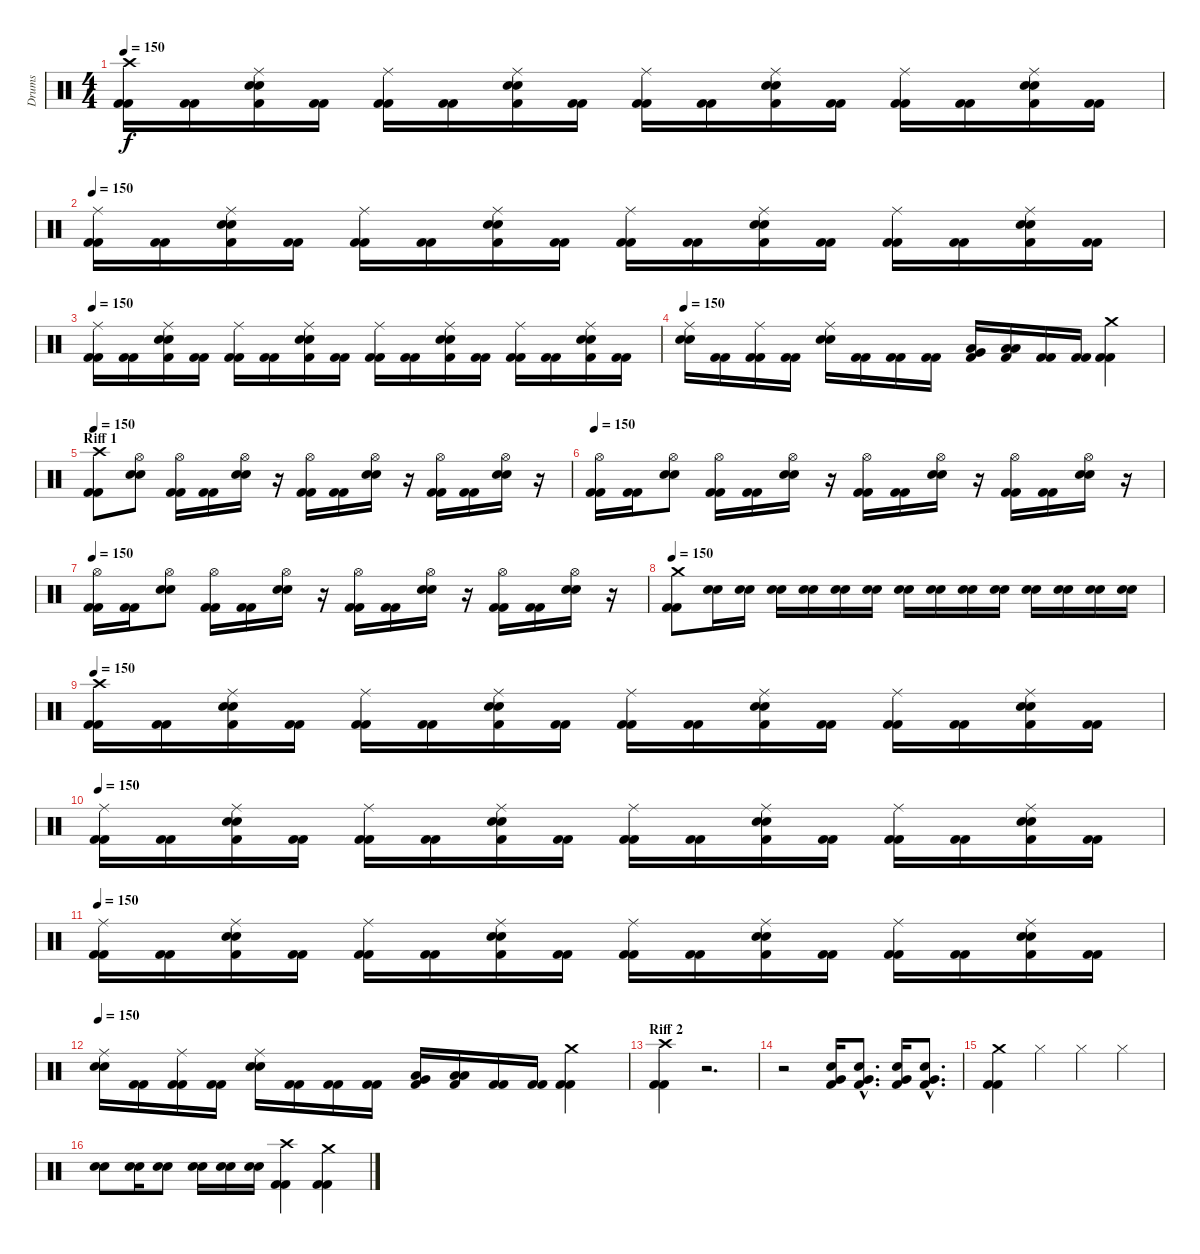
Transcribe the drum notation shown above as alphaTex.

\track ("Drums" "Drums") {instrument percussion}
\staff {score}
\articulation defaults
\ts (4 4)
\tempo 150
\clef neutral
\ks c
("Crash high (hit)" "Kick (hit) 2" "Kick (hit) 2").16{dy f} ("Kick (hit) 2" "Kick (hit) 2").16 ("Ride (middle)" "Snare (hit) 2" "Snare (hit) 2" "Kick (hit) 2").16 ("Kick (hit) 2" "Kick (hit) 2").16 ("Ride (middle)" "Kick (hit) 2" "Kick (hit) 2").16 ("Kick (hit) 2" "Kick (hit) 2").16 ("Ride (middle)" "Snare (hit) 2" "Snare (hit) 2" "Kick (hit) 2").16 ("Kick (hit) 2" "Kick (hit) 2").16 ("Ride (middle)" "Kick (hit) 2" "Kick (hit) 2").16 ("Kick (hit) 2" "Kick (hit) 2").16 ("Ride (middle)" "Snare (hit) 2" "Snare (hit) 2" "Kick (hit) 2").16 ("Kick (hit) 2" "Kick (hit) 2").16 ("Ride (middle)" "Kick (hit) 2" "Kick (hit) 2").16 ("Kick (hit) 2" "Kick (hit) 2").16 ("Ride (middle)" "Snare (hit) 2" "Snare (hit) 2" "Kick (hit) 2").16 ("Kick (hit) 2" "Kick (hit) 2").16 |
\tempo 150
("Ride (middle)" "Kick (hit) 2" "Kick (hit) 2").16 ("Kick (hit) 2" "Kick (hit) 2").16 ("Ride (middle)" "Snare (hit) 2" "Snare (hit) 2" "Kick (hit) 2").16 ("Kick (hit) 2" "Kick (hit) 2").16 ("Ride (middle)" "Kick (hit) 2" "Kick (hit) 2").16 ("Kick (hit) 2" "Kick (hit) 2").16 ("Ride (middle)" "Snare (hit) 2" "Snare (hit) 2" "Kick (hit) 2").16 ("Kick (hit) 2" "Kick (hit) 2").16 ("Ride (middle)" "Kick (hit) 2" "Kick (hit) 2").16 ("Kick (hit) 2" "Kick (hit) 2").16 ("Ride (middle)" "Snare (hit) 2" "Snare (hit) 2" "Kick (hit) 2").16 ("Kick (hit) 2" "Kick (hit) 2").16 ("Ride (middle)" "Kick (hit) 2" "Kick (hit) 2").16 ("Kick (hit) 2" "Kick (hit) 2").16 ("Ride (middle)" "Snare (hit) 2" "Snare (hit) 2" "Kick (hit) 2").16 ("Kick (hit) 2" "Kick (hit) 2").16 |
\tempo 150
("Ride (middle)" "Kick (hit) 2" "Kick (hit) 2").16 ("Kick (hit) 2" "Kick (hit) 2").16 ("Ride (middle)" "Snare (hit) 2" "Snare (hit) 2" "Kick (hit) 2").16 ("Kick (hit) 2" "Kick (hit) 2").16 ("Ride (middle)" "Kick (hit) 2" "Kick (hit) 2").16 ("Kick (hit) 2" "Kick (hit) 2").16 ("Ride (middle)" "Snare (hit) 2" "Snare (hit) 2" "Kick (hit) 2").16 ("Kick (hit) 2" "Kick (hit) 2").16 ("Ride (middle)" "Kick (hit) 2" "Kick (hit) 2").16 ("Kick (hit) 2" "Kick (hit) 2").16 ("Ride (middle)" "Snare (hit) 2" "Snare (hit) 2" "Kick (hit) 2").16 ("Kick (hit) 2" "Kick (hit) 2").16 ("Ride (middle)" "Kick (hit) 2" "Kick (hit) 2").16 ("Kick (hit) 2" "Kick (hit) 2").16 ("Ride (middle)" "Snare (hit) 2" "Snare (hit) 2" "Kick (hit) 2").16 ("Kick (hit) 2" "Kick (hit) 2").16 |
\tempo 150
("Ride (middle)" "Snare (hit) 2" "Snare (hit) 2").16 ("Kick (hit) 2" "Kick (hit) 2").16 ("Ride (middle)" "Kick (hit) 2" "Kick (hit) 2").16 ("Kick (hit) 2" "Kick (hit) 2").16 ("Ride (middle)" "Snare (hit) 2" "Snare (hit) 2").16 ("Kick (hit) 2" "Kick (hit) 2").16 ("Kick (hit) 2" "Kick (hit) 2").16 ("Kick (hit) 2" "Kick (hit) 2").16 ("Very Low Tom (hit)" "Low Tom (hit)" "Kick (hit) 2").16 ("Low Tom (hit)" "Low Tom (hit)" "Kick (hit) 2").16 ("Kick (hit) 2" "Kick (hit) 2").16 ("Kick (hit) 2" "Kick (hit) 2").16 ("Crash medium (hit)" "Kick (hit) 2" "Kick (hit) 2").4 |
\section ("" "Riff 1")
\tempo 150
("Crash high (hit)" "Kick (hit) 2" "Kick (hit) 2").8 ("Hi-Hat (open)" "Snare (hit) 2" "Snare (hit) 2").8 ("Hi-Hat (open)" "Kick (hit) 2" "Kick (hit) 2").16 ("Kick (hit) 2" "Kick (hit) 2").16 ("Hi-Hat (open)" "Snare (hit) 2" "Snare (hit) 2").16 r.16 ("Hi-Hat (open)" "Kick (hit) 2" "Kick (hit) 2").16 ("Kick (hit) 2" "Kick (hit) 2").16 ("Hi-Hat (open)" "Snare (hit) 2" "Snare (hit) 2").16 r.16 ("Hi-Hat (open)" "Kick (hit) 2" "Kick (hit) 2").16 ("Kick (hit) 2" "Kick (hit) 2").16 ("Hi-Hat (open)" "Snare (hit) 2" "Snare (hit) 2").16 r.16 |
\tempo 150
("Hi-Hat (open)" "Kick (hit) 2" "Kick (hit) 2").16 ("Kick (hit) 2" "Kick (hit) 2").16 ("Hi-Hat (open)" "Snare (hit) 2" "Snare (hit) 2").8 ("Hi-Hat (open)" "Kick (hit) 2" "Kick (hit) 2").16 ("Kick (hit) 2" "Kick (hit) 2").16 ("Hi-Hat (open)" "Snare (hit) 2" "Snare (hit) 2").16 r.16 ("Hi-Hat (open)" "Kick (hit) 2" "Kick (hit) 2").16 ("Kick (hit) 2" "Kick (hit) 2").16 ("Hi-Hat (open)" "Snare (hit) 2" "Snare (hit) 2").16 r.16 ("Hi-Hat (open)" "Kick (hit) 2" "Kick (hit) 2").16 ("Kick (hit) 2" "Kick (hit) 2").16 ("Hi-Hat (open)" "Snare (hit) 2" "Snare (hit) 2").16 r.16 |
\tempo 150
("Hi-Hat (open)" "Kick (hit) 2" "Kick (hit) 2").16 ("Kick (hit) 2" "Kick (hit) 2").16 ("Hi-Hat (open)" "Snare (hit) 2" "Snare (hit) 2").8 ("Hi-Hat (open)" "Kick (hit) 2" "Kick (hit) 2").16 ("Kick (hit) 2" "Kick (hit) 2").16 ("Hi-Hat (open)" "Snare (hit) 2" "Snare (hit) 2").16 r.16 ("Hi-Hat (open)" "Kick (hit) 2" "Kick (hit) 2").16 ("Kick (hit) 2" "Kick (hit) 2").16 ("Hi-Hat (open)" "Snare (hit) 2" "Snare (hit) 2").16 r.16 ("Hi-Hat (open)" "Kick (hit) 2" "Kick (hit) 2").16 ("Kick (hit) 2" "Kick (hit) 2").16 ("Hi-Hat (open)" "Snare (hit) 2" "Snare (hit) 2").16 r.16 |
\tempo 150
("Crash medium (hit)" "Kick (hit) 2" "Kick (hit) 2").8 ("Snare (hit) 2" "Snare (hit) 2").16 ("Snare (hit) 2" "Snare (hit) 2").16 ("Snare (hit) 2" "Snare (hit) 2").16 ("Snare (hit) 2" "Snare (hit) 2").16 ("Snare (hit) 2" "Snare (hit) 2").16 ("Snare (hit) 2" "Snare (hit) 2").16 ("Snare (hit) 2" "Snare (hit) 2").16 ("Snare (hit) 2" "Snare (hit) 2").16 ("Snare (hit) 2" "Snare (hit) 2").16 ("Snare (hit) 2" "Snare (hit) 2").16 ("Snare (hit) 2" "Snare (hit) 2").16 ("Snare (hit) 2" "Snare (hit) 2").16 ("Snare (hit) 2" "Snare (hit) 2").16 ("Snare (hit) 2" "Snare (hit) 2").16 |
\tempo 150
("Crash high (hit)" "Kick (hit) 2" "Kick (hit) 2").16 ("Kick (hit) 2" "Kick (hit) 2").16 ("Ride (middle)" "Snare (hit) 2" "Snare (hit) 2" "Kick (hit) 2").16 ("Kick (hit) 2" "Kick (hit) 2").16 ("Ride (middle)" "Kick (hit) 2" "Kick (hit) 2").16 ("Kick (hit) 2" "Kick (hit) 2").16 ("Ride (middle)" "Snare (hit) 2" "Snare (hit) 2" "Kick (hit) 2").16 ("Kick (hit) 2" "Kick (hit) 2").16 ("Ride (middle)" "Kick (hit) 2" "Kick (hit) 2").16 ("Kick (hit) 2" "Kick (hit) 2").16 ("Ride (middle)" "Snare (hit) 2" "Snare (hit) 2" "Kick (hit) 2").16 ("Kick (hit) 2" "Kick (hit) 2").16 ("Ride (middle)" "Kick (hit) 2" "Kick (hit) 2").16 ("Kick (hit) 2" "Kick (hit) 2").16 ("Ride (middle)" "Snare (hit) 2" "Snare (hit) 2" "Kick (hit) 2").16 ("Kick (hit) 2" "Kick (hit) 2").16 |
\tempo 150
("Ride (middle)" "Kick (hit) 2" "Kick (hit) 2").16 ("Kick (hit) 2" "Kick (hit) 2").16 ("Ride (middle)" "Snare (hit) 2" "Snare (hit) 2" "Kick (hit) 2").16 ("Kick (hit) 2" "Kick (hit) 2").16 ("Ride (middle)" "Kick (hit) 2" "Kick (hit) 2").16 ("Kick (hit) 2" "Kick (hit) 2").16 ("Ride (middle)" "Snare (hit) 2" "Snare (hit) 2" "Kick (hit) 2").16 ("Kick (hit) 2" "Kick (hit) 2").16 ("Ride (middle)" "Kick (hit) 2" "Kick (hit) 2").16 ("Kick (hit) 2" "Kick (hit) 2").16 ("Ride (middle)" "Snare (hit) 2" "Snare (hit) 2" "Kick (hit) 2").16 ("Kick (hit) 2" "Kick (hit) 2").16 ("Ride (middle)" "Kick (hit) 2" "Kick (hit) 2").16 ("Kick (hit) 2" "Kick (hit) 2").16 ("Ride (middle)" "Snare (hit) 2" "Snare (hit) 2" "Kick (hit) 2").16 ("Kick (hit) 2" "Kick (hit) 2").16 |
\tempo 150
("Ride (middle)" "Kick (hit) 2" "Kick (hit) 2").16 ("Kick (hit) 2" "Kick (hit) 2").16 ("Ride (middle)" "Snare (hit) 2" "Snare (hit) 2" "Kick (hit) 2").16 ("Kick (hit) 2" "Kick (hit) 2").16 ("Ride (middle)" "Kick (hit) 2" "Kick (hit) 2").16 ("Kick (hit) 2" "Kick (hit) 2").16 ("Ride (middle)" "Snare (hit) 2" "Snare (hit) 2" "Kick (hit) 2").16 ("Kick (hit) 2" "Kick (hit) 2").16 ("Ride (middle)" "Kick (hit) 2" "Kick (hit) 2").16 ("Kick (hit) 2" "Kick (hit) 2").16 ("Ride (middle)" "Snare (hit) 2" "Snare (hit) 2" "Kick (hit) 2").16 ("Kick (hit) 2" "Kick (hit) 2").16 ("Ride (middle)" "Kick (hit) 2" "Kick (hit) 2").16 ("Kick (hit) 2" "Kick (hit) 2").16 ("Ride (middle)" "Snare (hit) 2" "Snare (hit) 2" "Kick (hit) 2").16 ("Kick (hit) 2" "Kick (hit) 2").16 |
\tempo 150
("Ride (middle)" "Snare (hit) 2" "Snare (hit) 2").16 ("Kick (hit) 2" "Kick (hit) 2").16 ("Ride (middle)" "Kick (hit) 2" "Kick (hit) 2").16 ("Kick (hit) 2" "Kick (hit) 2").16 ("Ride (middle)" "Snare (hit) 2" "Snare (hit) 2").16 ("Kick (hit) 2" "Kick (hit) 2").16 ("Kick (hit) 2" "Kick (hit) 2").16 ("Kick (hit) 2" "Kick (hit) 2").16 ("Very Low Tom (hit)" "Low Tom (hit)" "Kick (hit) 2").16 ("Low Tom (hit)" "Low Tom (hit)" "Kick (hit) 2").16 ("Kick (hit) 2" "Kick (hit) 2").16 ("Kick (hit) 2" "Kick (hit) 2").16 ("Crash medium (hit)" "Kick (hit) 2" "Kick (hit) 2").4 |
\section ("" "Riff 2")
("Crash high (hit)" "Kick (hit) 2" "Kick (hit) 2").4 r.2{d} |
r.2 ("Snare (hit) 2" "Very Low Tom (hit)" "Kick (hit) 2").16 ("Snare (hit) 2"{hac} "Very Low Tom (hit)"{hac} "Kick (hit) 2"{hac}).8{d} ("Snare (hit) 2" "Very Low Tom (hit)" "Kick (hit) 2").16 ("Snare (hit) 2"{hac} "Very Low Tom (hit)"{hac} "Kick (hit) 2"{hac}).8{d} |
("Crash medium (hit)" "Kick (hit) 2" "Kick (hit) 2").4 "Hi-Hat (closed)".4 "Hi-Hat (closed)".4 "Hi-Hat (closed)".4 |
("Snare (hit) 2" "Snare (hit) 2").8 ("Snare (hit) 2" "Snare (hit) 2").16 ("Snare (hit) 2" "Snare (hit) 2").8 ("Snare (hit) 2" "Snare (hit) 2").16 ("Snare (hit) 2" "Snare (hit) 2").16 ("Snare (hit) 2" "Snare (hit) 2").16 ("Crash high (hit)" "Kick (hit) 2" "Kick (hit) 2").4 ("Crash medium (hit)" "Kick (hit) 2" "Kick (hit) 2").4
